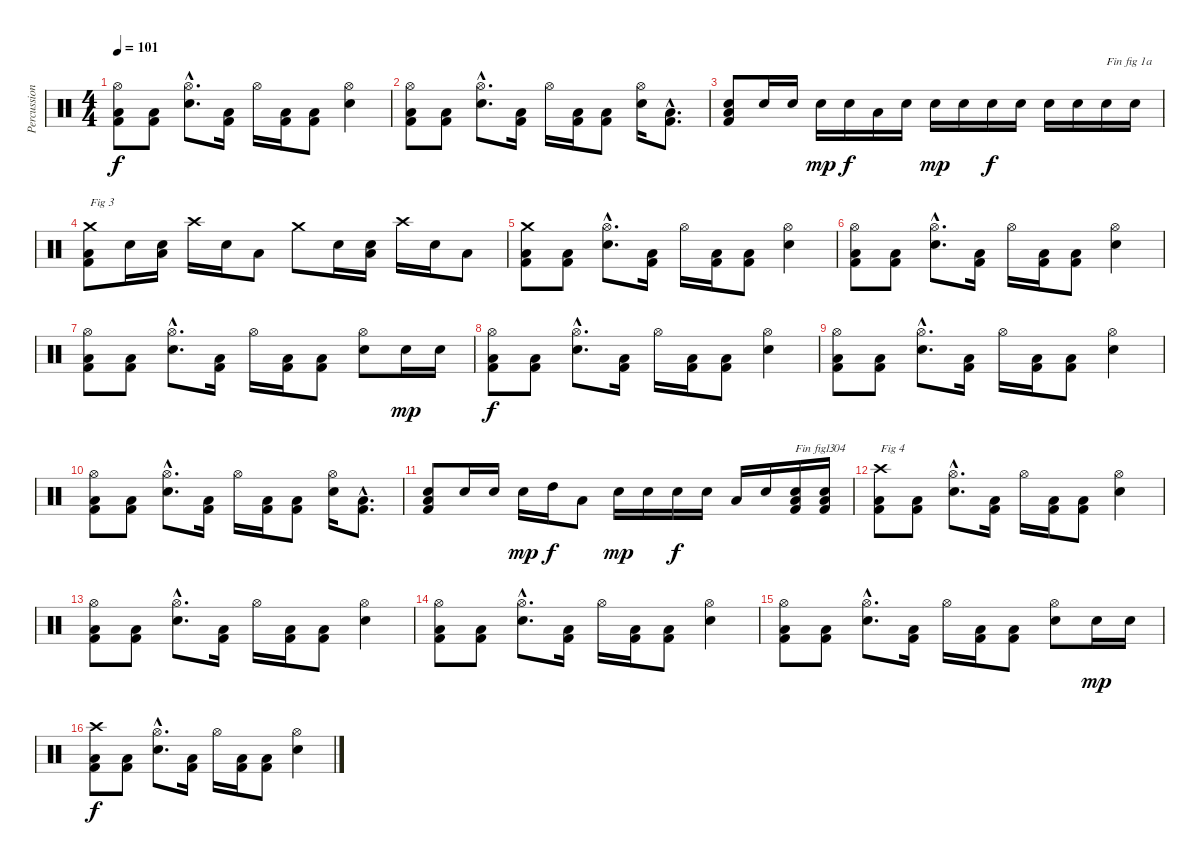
\track ("Percussion" "Percussion") {instrument percussion}
\staff {score}
\articulation defaults
\ts (4 4)
\tempo 101
\clef neutral
\ks c
("Kick (hit) 2" "Low Floor Tom (hit)" "Hi-Hat (open)").8{dy f} ("Kick (hit) 2" "Low Floor Tom (hit)").8 ("Snare (hit) 2"{hac} "Hi-Hat (open)"{hac}).8{d} ("Kick (hit) 2" "Low Floor Tom (hit)").16 "Hi-Hat (open)".16 ("Kick (hit) 2" "Low Floor Tom (hit)").16 ("Kick (hit) 2" "Low Floor Tom (hit)").8 ("Snare (hit) 2" "Hi-Hat (open)").4 |
("Kick (hit) 2" "Low Floor Tom (hit)" "Hi-Hat (open)").8 ("Kick (hit) 2" "Low Floor Tom (hit)").8 ("Snare (hit) 2"{hac} "Hi-Hat (open)"{hac}).8{d} ("Kick (hit) 2" "Low Floor Tom (hit)").16 "Hi-Hat (open)".16 ("Kick (hit) 2" "Low Floor Tom (hit)").16 ("Kick (hit) 2" "Low Floor Tom (hit)").8 ("Snare (hit) 2" "Hi-Hat (open)").16 ("Kick (hit) 2"{hac} "Low Floor Tom (hit)"{hac}).8{d} |
("Kick (hit) 2" "Low Floor Tom (hit)" "Snare (hit) 2").8 "Snare (hit) 2".16 "Snare (hit) 2".16 "Snare (hit) 2".16{dy mp} "Snare (hit) 2".16{dy f} "Low Tom (hit)".16 "Snare (hit) 2".16 "Snare (hit) 2".16{dy mp} "Snare (hit) 2".16 "Snare (hit) 2".16{dy f} "Snare (hit) 2".16 "Snare (hit) 2".16 "Snare (hit) 2".16 "Snare (hit) 2".16{txt "Fin fig 1a"} "Snare (hit) 2".16 |
("Kick (hit) 2" "Low Floor Tom (hit)" "Crash medium (hit)").8{txt "Fig 3"} "Snare (hit) 2".16 ("Low Floor Tom (hit)" "Snare (hit) 2").16 "Crash high (hit)".16 "Snare (hit) 2".16 "Low Floor Tom (hit)".8 "Crash medium (hit)".8 "Snare (hit) 2".16 ("Low Floor Tom (hit)" "Snare (hit) 2").16 "Crash high (hit)".16 "Snare (hit) 2".16 "Low Floor Tom (hit)".8 |
("Kick (hit) 2" "Low Floor Tom (hit)" "Crash medium (hit)").8 ("Kick (hit) 2" "Low Floor Tom (hit)").8 ("Snare (hit) 2"{hac} "Hi-Hat (open)"{hac}).8{d} ("Kick (hit) 2" "Low Floor Tom (hit)").16 "Hi-Hat (open)".16 ("Kick (hit) 2" "Low Floor Tom (hit)").16 ("Kick (hit) 2" "Low Floor Tom (hit)").8 ("Snare (hit) 2" "Hi-Hat (open)").4 |
("Kick (hit) 2" "Low Floor Tom (hit)" "Hi-Hat (open)").8 ("Kick (hit) 2" "Low Floor Tom (hit)").8 ("Snare (hit) 2"{hac} "Hi-Hat (open)"{hac}).8{d} ("Kick (hit) 2" "Low Floor Tom (hit)").16 "Hi-Hat (open)".16 ("Kick (hit) 2" "Low Floor Tom (hit)").16 ("Kick (hit) 2" "Low Floor Tom (hit)").8 ("Snare (hit) 2" "Hi-Hat (open)").4 |
("Kick (hit) 2" "Low Floor Tom (hit)" "Hi-Hat (open)").8 ("Kick (hit) 2" "Low Floor Tom (hit)").8 ("Snare (hit) 2"{hac} "Hi-Hat (open)"{hac}).8{d} ("Kick (hit) 2" "Low Floor Tom (hit)").16 "Hi-Hat (open)".16 ("Kick (hit) 2" "Low Floor Tom (hit)").16 ("Kick (hit) 2" "Low Floor Tom (hit)").8 ("Snare (hit) 2" "Hi-Hat (open)").8 "Snare (hit) 2".16{dy mp} "Snare (hit) 2".16 |
("Kick (hit) 2" "Low Floor Tom (hit)" "Hi-Hat (open)").8{dy f} ("Kick (hit) 2" "Low Floor Tom (hit)").8 ("Snare (hit) 2"{hac} "Hi-Hat (open)"{hac}).8{d} ("Kick (hit) 2" "Low Floor Tom (hit)").16 "Hi-Hat (open)".16 ("Kick (hit) 2" "Low Floor Tom (hit)").16 ("Kick (hit) 2" "Low Floor Tom (hit)").8 ("Snare (hit) 2" "Hi-Hat (open)").4 |
("Kick (hit) 2" "Low Floor Tom (hit)" "Hi-Hat (open)").8 ("Kick (hit) 2" "Low Floor Tom (hit)").8 ("Snare (hit) 2"{hac} "Hi-Hat (open)"{hac}).8{d} ("Kick (hit) 2" "Low Floor Tom (hit)").16 "Hi-Hat (open)".16 ("Kick (hit) 2" "Low Floor Tom (hit)").16 ("Kick (hit) 2" "Low Floor Tom (hit)").8 ("Snare (hit) 2" "Hi-Hat (open)").4 |
("Kick (hit) 2" "Low Floor Tom (hit)" "Hi-Hat (open)").8 ("Kick (hit) 2" "Low Floor Tom (hit)").8 ("Snare (hit) 2"{hac} "Hi-Hat (open)"{hac}).8{d} ("Kick (hit) 2" "Low Floor Tom (hit)").16 "Hi-Hat (open)".16 ("Kick (hit) 2" "Low Floor Tom (hit)").16 ("Kick (hit) 2" "Low Floor Tom (hit)").8 ("Snare (hit) 2" "Hi-Hat (open)").16 ("Kick (hit) 2"{hac} "Low Floor Tom (hit)"{hac}).8{d} |
("Kick (hit) 2" "Low Floor Tom (hit)" "Snare (hit) 2").8 "Snare (hit) 2".16 "Snare (hit) 2".16 "Snare (hit) 2".16{dy mp} "High Tom (hit)".16{dy f} "Low Tom (hit)".8 "Snare (hit) 2".16{dy mp} "Snare (hit) 2".16 "Snare (hit) 2".16{dy f} "Snare (hit) 2".16 "Low Tom (hit)".16 "Snare (hit) 2".16 ("Kick (hit) 2" "Low Floor Tom (hit)" "Snare (hit) 2").16{txt "Fin fig 3"} ("Kick (hit) 2" "Low Floor Tom (hit)" "Snare (hit) 2").16{txt "1.04"} |
("Kick (hit) 2" "Low Floor Tom (hit)" "Crash high (hit)").8{txt "Fig 4"} ("Kick (hit) 2" "Low Floor Tom (hit)").8 ("Snare (hit) 2"{hac} "Hi-Hat (open)"{hac}).8{d} ("Kick (hit) 2" "Low Floor Tom (hit)").16 "Hi-Hat (open)".16 ("Kick (hit) 2" "Low Floor Tom (hit)").16 ("Kick (hit) 2" "Low Floor Tom (hit)").8 ("Snare (hit) 2" "Hi-Hat (open)").4 |
("Kick (hit) 2" "Low Floor Tom (hit)" "Hi-Hat (open)").8 ("Kick (hit) 2" "Low Floor Tom (hit)").8 ("Snare (hit) 2"{hac} "Hi-Hat (open)"{hac}).8{d} ("Kick (hit) 2" "Low Floor Tom (hit)").16 "Hi-Hat (open)".16 ("Kick (hit) 2" "Low Floor Tom (hit)").16 ("Kick (hit) 2" "Low Floor Tom (hit)").8 ("Snare (hit) 2" "Hi-Hat (open)").4 |
("Kick (hit) 2" "Low Floor Tom (hit)" "Hi-Hat (open)").8 ("Kick (hit) 2" "Low Floor Tom (hit)").8 ("Snare (hit) 2"{hac} "Hi-Hat (open)"{hac}).8{d} ("Kick (hit) 2" "Low Floor Tom (hit)").16 "Hi-Hat (open)".16 ("Kick (hit) 2" "Low Floor Tom (hit)").16 ("Kick (hit) 2" "Low Floor Tom (hit)").8 ("Snare (hit) 2" "Hi-Hat (open)").4 |
("Kick (hit) 2" "Low Floor Tom (hit)" "Hi-Hat (open)").8 ("Kick (hit) 2" "Low Floor Tom (hit)").8 ("Snare (hit) 2"{hac} "Hi-Hat (open)"{hac}).8{d} ("Kick (hit) 2" "Low Floor Tom (hit)").16 "Hi-Hat (open)".16 ("Kick (hit) 2" "Low Floor Tom (hit)").16 ("Kick (hit) 2" "Low Floor Tom (hit)").8 ("Snare (hit) 2" "Hi-Hat (open)").8 "Snare (hit) 2".16{dy mp} "Snare (hit) 2".16 |
("Kick (hit) 2" "Low Floor Tom (hit)" "Crash high (hit)").8{dy f} ("Kick (hit) 2" "Low Floor Tom (hit)").8 ("Snare (hit) 2"{hac} "Hi-Hat (open)"{hac}).8{d} ("Kick (hit) 2" "Low Floor Tom (hit)").16 "Hi-Hat (open)".16 ("Kick (hit) 2" "Low Floor Tom (hit)").16 ("Kick (hit) 2" "Low Floor Tom (hit)").8 ("Snare (hit) 2" "Hi-Hat (open)").4
